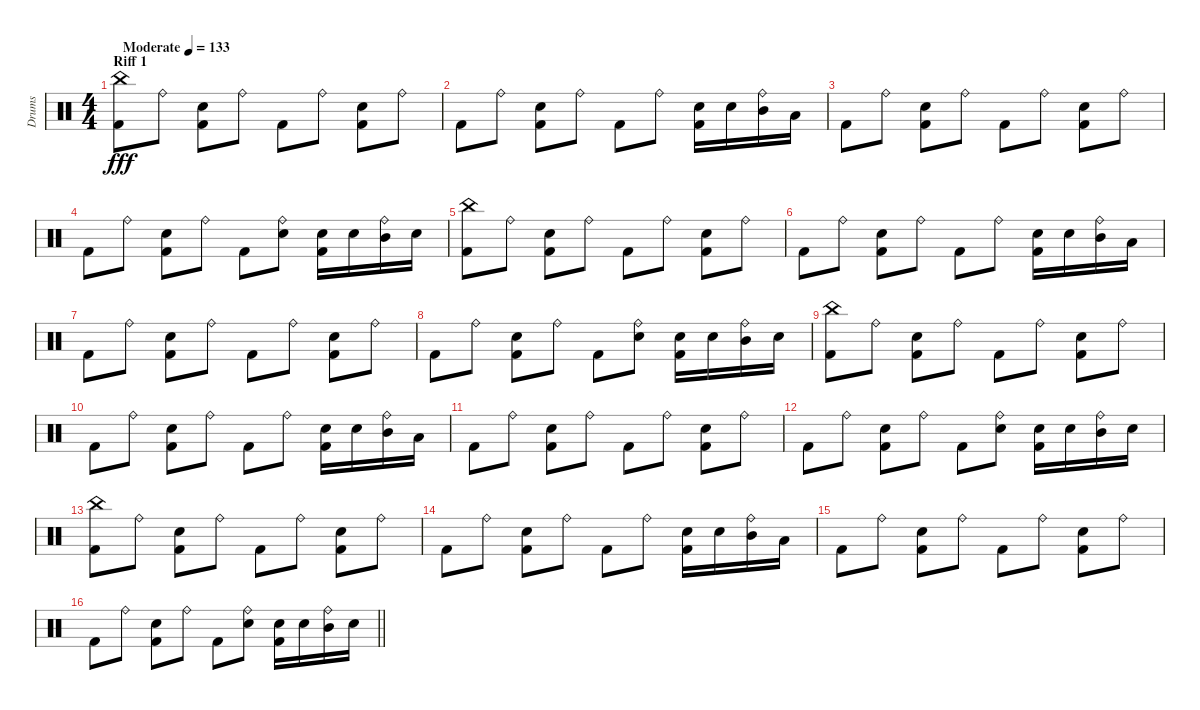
\track ("Drums" "Drums") {instrument percussion}
\staff {score}
\articulation defaults
\ts (4 4)
\section ("" "Riff 1")
\tempo (133 "Moderate")
\clef neutral
\ks c
("Kick (hit) 2" "China (hit)").8{dy fff} "Ride (bell)".8 ("Kick (hit) 2" "Snare (hit) 2").8 "Ride (bell)".8 "Kick (hit) 2".8 "Ride (bell)".8 ("Kick (hit) 2" "Snare (hit) 2").8 "Ride (bell)".8 |
"Kick (hit) 2".8 "Ride (bell)".8 ("Kick (hit) 2" "Snare (hit) 2").8 "Ride (bell)".8 "Kick (hit) 2".8 "Ride (bell)".8 ("Kick (hit) 2" "Snare (hit) 2").16 "Snare (hit) 2".16 ("Ride (bell)" "Mid Tom (hit)").16 "Low Tom (hit)".16 |
"Kick (hit) 2".8 "Ride (bell)".8 ("Kick (hit) 2" "Snare (hit) 2").8 "Ride (bell)".8 "Kick (hit) 2".8 "Ride (bell)".8 ("Kick (hit) 2" "Snare (hit) 2").8 "Ride (bell)".8 |
"Kick (hit) 2".8 "Ride (bell)".8 ("Kick (hit) 2" "Snare (hit) 2").8 "Ride (bell)".8 "Kick (hit) 2".8 ("Snare (hit) 2" "Ride (bell)").8 ("Kick (hit) 2" "Snare (hit) 2").16 "Snare (hit) 2".16 ("Ride (bell)" "Mid Tom (hit)").16 "Snare (hit) 2".16 |
("Kick (hit) 2" "China (hit)").8 "Ride (bell)".8 ("Kick (hit) 2" "Snare (hit) 2").8 "Ride (bell)".8 "Kick (hit) 2".8 "Ride (bell)".8 ("Kick (hit) 2" "Snare (hit) 2").8 "Ride (bell)".8 |
"Kick (hit) 2".8 "Ride (bell)".8 ("Kick (hit) 2" "Snare (hit) 2").8 "Ride (bell)".8 "Kick (hit) 2".8 "Ride (bell)".8 ("Kick (hit) 2" "Snare (hit) 2").16 "Snare (hit) 2".16 ("Ride (bell)" "Mid Tom (hit)").16 "Low Tom (hit)".16 |
"Kick (hit) 2".8 "Ride (bell)".8 ("Kick (hit) 2" "Snare (hit) 2").8 "Ride (bell)".8 "Kick (hit) 2".8 "Ride (bell)".8 ("Kick (hit) 2" "Snare (hit) 2").8 "Ride (bell)".8 |
"Kick (hit) 2".8 "Ride (bell)".8 ("Kick (hit) 2" "Snare (hit) 2").8 "Ride (bell)".8 "Kick (hit) 2".8 ("Snare (hit) 2" "Ride (bell)").8 ("Kick (hit) 2" "Snare (hit) 2").16 "Snare (hit) 2".16 ("Ride (bell)" "Mid Tom (hit)").16 "Snare (hit) 2".16 |
("Kick (hit) 2" "China (hit)").8 "Ride (bell)".8 ("Kick (hit) 2" "Snare (hit) 2").8 "Ride (bell)".8 "Kick (hit) 2".8 "Ride (bell)".8 ("Kick (hit) 2" "Snare (hit) 2").8 "Ride (bell)".8 |
"Kick (hit) 2".8 "Ride (bell)".8 ("Kick (hit) 2" "Snare (hit) 2").8 "Ride (bell)".8 "Kick (hit) 2".8 "Ride (bell)".8 ("Kick (hit) 2" "Snare (hit) 2").16 "Snare (hit) 2".16 ("Ride (bell)" "Mid Tom (hit)").16 "Low Tom (hit)".16 |
"Kick (hit) 2".8 "Ride (bell)".8 ("Kick (hit) 2" "Snare (hit) 2").8 "Ride (bell)".8 "Kick (hit) 2".8 "Ride (bell)".8 ("Kick (hit) 2" "Snare (hit) 2").8 "Ride (bell)".8 |
"Kick (hit) 2".8 "Ride (bell)".8 ("Kick (hit) 2" "Snare (hit) 2").8 "Ride (bell)".8 "Kick (hit) 2".8 ("Snare (hit) 2" "Ride (bell)").8 ("Kick (hit) 2" "Snare (hit) 2").16 "Snare (hit) 2".16 ("Ride (bell)" "Mid Tom (hit)").16 "Snare (hit) 2".16 |
("Kick (hit) 2" "China (hit)").8 "Ride (bell)".8 ("Kick (hit) 2" "Snare (hit) 2").8 "Ride (bell)".8 "Kick (hit) 2".8 "Ride (bell)".8 ("Kick (hit) 2" "Snare (hit) 2").8 "Ride (bell)".8 |
"Kick (hit) 2".8 "Ride (bell)".8 ("Kick (hit) 2" "Snare (hit) 2").8 "Ride (bell)".8 "Kick (hit) 2".8 "Ride (bell)".8 ("Kick (hit) 2" "Snare (hit) 2").16 "Snare (hit) 2".16 ("Ride (bell)" "Mid Tom (hit)").16 "Low Tom (hit)".16 |
"Kick (hit) 2".8 "Ride (bell)".8 ("Kick (hit) 2" "Snare (hit) 2").8 "Ride (bell)".8 "Kick (hit) 2".8 "Ride (bell)".8 ("Kick (hit) 2" "Snare (hit) 2").8 "Ride (bell)".8 |
\barLineRight lightlight "Kick (hit) 2".8 "Ride (bell)".8
("Kick (hit) 2" "Snare (hit) 2").8 "Ride (bell)".8 "Kick (hit) 2".8 ("Snare (hit) 2" "Ride (bell)").8 ("Kick (hit) 2" "Snare (hit) 2").16 "Snare (hit) 2".16 ("Ride (bell)" "Mid Tom (hit)").16 "Snare (hit) 2".16
